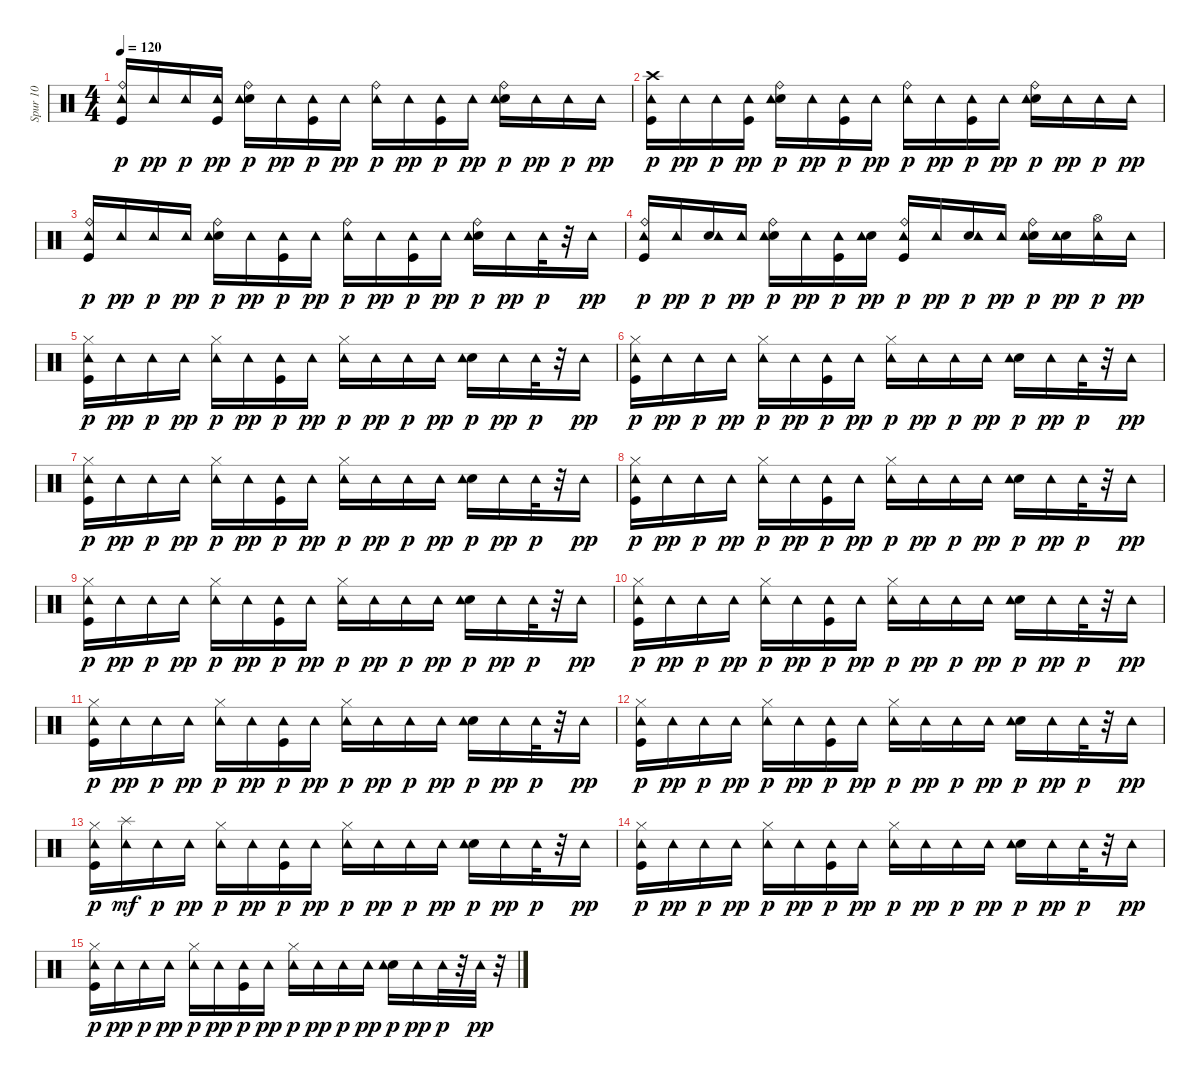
\track ("Spur 10" "Spur 10") {instrument percussion}
\staff {score}
\articulation defaults
\ts (4 4)
\tempo 120
\clef neutral
\ks c
("Kick (hit)" "Ride (bell)" "Tambourine (hit)").16{dy p} "Tambourine (hit)".16{dy pp} "Tambourine (hit)".16{dy p} ("Kick (hit)" "Tambourine (hit)").16{dy pp} ("Electric Snare (hit)" "Ride (bell)" "Tambourine (hit)").16{dy p} "Tambourine (hit)".16{dy pp} ("Kick (hit)" "Tambourine (hit)").16{dy p} "Tambourine (hit)".16{dy pp} ("Ride (bell)" "Tambourine (hit)").16{dy p} "Tambourine (hit)".16{dy pp} ("Kick (hit)" "Tambourine (hit)").16{dy p} "Tambourine (hit)".16{dy pp} ("Electric Snare (hit)" "Ride (bell)" "Tambourine (hit)").16{dy p} "Tambourine (hit)".16{dy pp} "Tambourine (hit)".16{dy p} "Tambourine (hit)".16{dy pp} |
("Kick (hit)" "Crash high (hit)" "Tambourine (hit)").16{dy p} "Tambourine (hit)".16{dy pp} "Tambourine (hit)".16{dy p} ("Kick (hit)" "Tambourine (hit)").16{dy pp} ("Electric Snare (hit)" "Ride (bell)" "Tambourine (hit)").16{dy p} "Tambourine (hit)".16{dy pp} ("Kick (hit)" "Tambourine (hit)").16{dy p} "Tambourine (hit)".16{dy pp} ("Ride (bell)" "Tambourine (hit)").16{dy p} "Tambourine (hit)".16{dy pp} ("Kick (hit)" "Tambourine (hit)").16{dy p} "Tambourine (hit)".16{dy pp} ("Electric Snare (hit)" "Ride (bell)" "Tambourine (hit)").16{dy p} "Tambourine (hit)".16{dy pp} "Tambourine (hit)".16{dy p} "Tambourine (hit)".16{dy pp} |
("Kick (hit)" "Ride (bell)" "Tambourine (hit)").16{dy p} "Tambourine (hit)".16{dy pp} "Tambourine (hit)".16{dy p} "Tambourine (hit)".16{dy pp} ("Electric Snare (hit)" "Ride (bell)" "Tambourine (hit)").16{dy p} "Tambourine (hit)".16{dy pp} ("Kick (hit)" "Tambourine (hit)").16{dy p} "Tambourine (hit)".16{dy pp} ("Ride (bell)" "Tambourine (hit)").16{dy p} "Tambourine (hit)".16{dy pp} ("Kick (hit)" "Tambourine (hit)").16{dy p} "Tambourine (hit)".16{dy pp} ("Electric Snare (hit)" "Ride (bell)" "Tambourine (hit)").16{dy p} "Tambourine (hit)".16{dy pp} "Tambourine (hit)".32{dy p} r.32 "Tambourine (hit)".16{dy pp} |
("Kick (hit)" "Ride (bell)" "Tambourine (hit)").16{dy p} "Tambourine (hit)".16{dy pp} ("Electric Snare (hit)" "Tambourine (hit)").16{dy p} "Tambourine (hit)".16{dy pp} ("Electric Snare (hit)" "Ride (bell)" "Tambourine (hit)").16{dy p} "Tambourine (hit)".16{dy pp} ("Kick (hit)" "Tambourine (hit)").16{dy p} ("Electric Snare (hit)" "Tambourine (hit)").16{dy pp} ("Kick (hit)" "Ride (bell)" "Tambourine (hit)").16{dy p} "Tambourine (hit)".16{dy pp} ("Electric Snare (hit)" "Tambourine (hit)").16{dy p} "Tambourine (hit)".16{dy pp} ("Electric Snare (hit)" "Ride (bell)" "Tambourine (hit)").16{dy p} ("Electric Snare (hit)" "Tambourine (hit)").16{dy pp} ("Hi-Hat (open)" "Tambourine (hit)").16{dy p} "Tambourine (hit)".16{dy pp} |
("Kick (hit)" "Hi-Hat (closed)" "Tambourine (hit)").16{dy p} "Tambourine (hit)".16{dy pp} "Tambourine (hit)".16{dy p} "Tambourine (hit)".16{dy pp} ("Hi-Hat (closed)" "Tambourine (hit)").16{dy p} "Tambourine (hit)".16{dy pp} ("Kick (hit)" "Tambourine (hit)").16{dy p} "Tambourine (hit)".16{dy pp} ("Hi-Hat (closed)" "Tambourine (hit)").16{dy p} "Tambourine (hit)".16{dy pp} "Tambourine (hit)".16{dy p} "Tambourine (hit)".16{dy pp} ("Electric Snare (hit)" "Tambourine (hit)").16{dy p} "Tambourine (hit)".16{dy pp} "Tambourine (hit)".32{dy p} r.32 "Tambourine (hit)".16{dy pp} |
("Kick (hit)" "Hi-Hat (closed)" "Tambourine (hit)").16{dy p} "Tambourine (hit)".16{dy pp} "Tambourine (hit)".16{dy p} "Tambourine (hit)".16{dy pp} ("Hi-Hat (closed)" "Tambourine (hit)").16{dy p} "Tambourine (hit)".16{dy pp} ("Kick (hit)" "Tambourine (hit)").16{dy p} "Tambourine (hit)".16{dy pp} ("Hi-Hat (closed)" "Tambourine (hit)").16{dy p} "Tambourine (hit)".16{dy pp} "Tambourine (hit)".16{dy p} "Tambourine (hit)".16{dy pp} ("Electric Snare (hit)" "Tambourine (hit)").16{dy p} "Tambourine (hit)".16{dy pp} "Tambourine (hit)".32{dy p} r.32 "Tambourine (hit)".16{dy pp} |
("Kick (hit)" "Hi-Hat (closed)" "Tambourine (hit)").16{dy p} "Tambourine (hit)".16{dy pp} "Tambourine (hit)".16{dy p} "Tambourine (hit)".16{dy pp} ("Hi-Hat (closed)" "Tambourine (hit)").16{dy p} "Tambourine (hit)".16{dy pp} ("Kick (hit)" "Tambourine (hit)").16{dy p} "Tambourine (hit)".16{dy pp} ("Hi-Hat (closed)" "Tambourine (hit)").16{dy p} "Tambourine (hit)".16{dy pp} "Tambourine (hit)".16{dy p} "Tambourine (hit)".16{dy pp} ("Electric Snare (hit)" "Tambourine (hit)").16{dy p} "Tambourine (hit)".16{dy pp} "Tambourine (hit)".32{dy p} r.32 "Tambourine (hit)".16{dy pp} |
("Kick (hit)" "Hi-Hat (closed)" "Tambourine (hit)").16{dy p} "Tambourine (hit)".16{dy pp} "Tambourine (hit)".16{dy p} "Tambourine (hit)".16{dy pp} ("Hi-Hat (closed)" "Tambourine (hit)").16{dy p} "Tambourine (hit)".16{dy pp} ("Kick (hit)" "Tambourine (hit)").16{dy p} "Tambourine (hit)".16{dy pp} ("Hi-Hat (closed)" "Tambourine (hit)").16{dy p} "Tambourine (hit)".16{dy pp} "Tambourine (hit)".16{dy p} "Tambourine (hit)".16{dy pp} ("Electric Snare (hit)" "Tambourine (hit)").16{dy p} "Tambourine (hit)".16{dy pp} "Tambourine (hit)".32{dy p} r.32 "Tambourine (hit)".16{dy pp} |
("Kick (hit)" "Hi-Hat (closed)" "Tambourine (hit)").16{dy p} "Tambourine (hit)".16{dy pp} "Tambourine (hit)".16{dy p} "Tambourine (hit)".16{dy pp} ("Hi-Hat (closed)" "Tambourine (hit)").16{dy p} "Tambourine (hit)".16{dy pp} ("Kick (hit)" "Tambourine (hit)").16{dy p} "Tambourine (hit)".16{dy pp} ("Hi-Hat (closed)" "Tambourine (hit)").16{dy p} "Tambourine (hit)".16{dy pp} "Tambourine (hit)".16{dy p} "Tambourine (hit)".16{dy pp} ("Electric Snare (hit)" "Tambourine (hit)").16{dy p} "Tambourine (hit)".16{dy pp} "Tambourine (hit)".32{dy p} r.32 "Tambourine (hit)".16{dy pp} |
("Kick (hit)" "Hi-Hat (closed)" "Tambourine (hit)").16{dy p} "Tambourine (hit)".16{dy pp} "Tambourine (hit)".16{dy p} "Tambourine (hit)".16{dy pp} ("Hi-Hat (closed)" "Tambourine (hit)").16{dy p} "Tambourine (hit)".16{dy pp} ("Kick (hit)" "Tambourine (hit)").16{dy p} "Tambourine (hit)".16{dy pp} ("Hi-Hat (closed)" "Tambourine (hit)").16{dy p} "Tambourine (hit)".16{dy pp} "Tambourine (hit)".16{dy p} "Tambourine (hit)".16{dy pp} ("Electric Snare (hit)" "Tambourine (hit)").16{dy p} "Tambourine (hit)".16{dy pp} "Tambourine (hit)".32{dy p} r.32 "Tambourine (hit)".16{dy pp} |
("Kick (hit)" "Hi-Hat (closed)" "Tambourine (hit)").16{dy p} "Tambourine (hit)".16{dy pp} "Tambourine (hit)".16{dy p} "Tambourine (hit)".16{dy pp} ("Hi-Hat (closed)" "Tambourine (hit)").16{dy p} "Tambourine (hit)".16{dy pp} ("Kick (hit)" "Tambourine (hit)").16{dy p} "Tambourine (hit)".16{dy pp} ("Hi-Hat (closed)" "Tambourine (hit)").16{dy p} "Tambourine (hit)".16{dy pp} "Tambourine (hit)".16{dy p} "Tambourine (hit)".16{dy pp} ("Electric Snare (hit)" "Tambourine (hit)").16{dy p} "Tambourine (hit)".16{dy pp} "Tambourine (hit)".32{dy p} r.32 "Tambourine (hit)".16{dy pp} |
("Kick (hit)" "Hi-Hat (closed)" "Tambourine (hit)").16{dy p} "Tambourine (hit)".16{dy pp} "Tambourine (hit)".16{dy p} "Tambourine (hit)".16{dy pp} ("Hi-Hat (closed)" "Tambourine (hit)").16{dy p} "Tambourine (hit)".16{dy pp} ("Kick (hit)" "Tambourine (hit)").16{dy p} "Tambourine (hit)".16{dy pp} ("Hi-Hat (closed)" "Tambourine (hit)").16{dy p} "Tambourine (hit)".16{dy pp} "Tambourine (hit)".16{dy p} "Tambourine (hit)".16{dy pp} ("Electric Snare (hit)" "Tambourine (hit)").16{dy p} "Tambourine (hit)".16{dy pp} "Tambourine (hit)".32{dy p} r.32 "Tambourine (hit)".16{dy pp} |
("Kick (hit)" "Hi-Hat (closed)" "Tambourine (hit)").16{dy p} ("Tambourine (hit)" "Splash (hit)").16{dy mf} "Tambourine (hit)".16{dy p} "Tambourine (hit)".16{dy pp} ("Hi-Hat (closed)" "Tambourine (hit)").16{dy p} "Tambourine (hit)".16{dy pp} ("Kick (hit)" "Tambourine (hit)").16{dy p} "Tambourine (hit)".16{dy pp} ("Hi-Hat (closed)" "Tambourine (hit)").16{dy p} "Tambourine (hit)".16{dy pp} "Tambourine (hit)".16{dy p} "Tambourine (hit)".16{dy pp} ("Electric Snare (hit)" "Tambourine (hit)").16{dy p} "Tambourine (hit)".16{dy pp} "Tambourine (hit)".32{dy p} r.32 "Tambourine (hit)".16{dy pp} |
("Kick (hit)" "Hi-Hat (closed)" "Tambourine (hit)").16{dy p} "Tambourine (hit)".16{dy pp} "Tambourine (hit)".16{dy p} "Tambourine (hit)".16{dy pp} ("Hi-Hat (closed)" "Tambourine (hit)").16{dy p} "Tambourine (hit)".16{dy pp} ("Kick (hit)" "Tambourine (hit)").16{dy p} "Tambourine (hit)".16{dy pp} ("Hi-Hat (closed)" "Tambourine (hit)").16{dy p} "Tambourine (hit)".16{dy pp} "Tambourine (hit)".16{dy p} "Tambourine (hit)".16{dy pp} ("Electric Snare (hit)" "Tambourine (hit)").16{dy p} "Tambourine (hit)".16{dy pp} "Tambourine (hit)".32{dy p} r.32 "Tambourine (hit)".16{dy pp} |
("Kick (hit)" "Hi-Hat (closed)" "Tambourine (hit)").16{dy p} "Tambourine (hit)".16{dy pp} "Tambourine (hit)".16{dy p} "Tambourine (hit)".16{dy pp} ("Hi-Hat (closed)" "Tambourine (hit)").16{dy p} "Tambourine (hit)".16{dy pp} ("Kick (hit)" "Tambourine (hit)").16{dy p} "Tambourine (hit)".16{dy pp} ("Hi-Hat (closed)" "Tambourine (hit)").16{dy p} "Tambourine (hit)".16{dy pp} "Tambourine (hit)".16{dy p} "Tambourine (hit)".16{dy pp} ("Electric Snare (hit)" "Tambourine (hit)").16{dy p} "Tambourine (hit)".16{dy pp} "Tambourine (hit)".32{dy p} r.32 "Tambourine (hit)".32{dy pp} r.32
